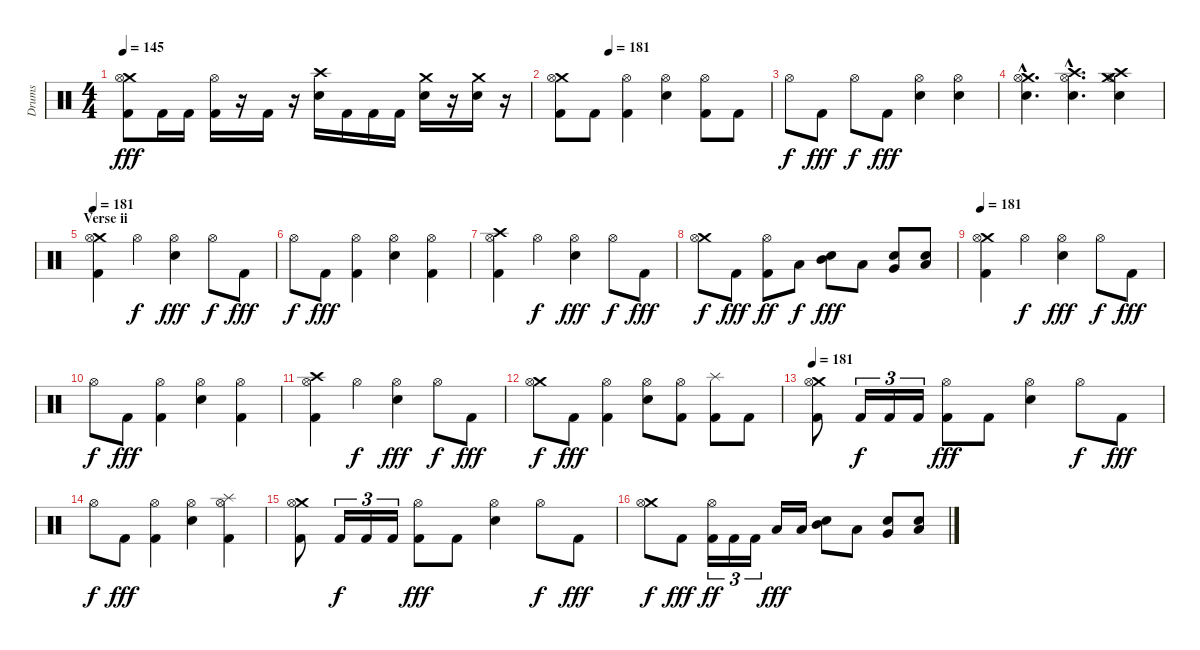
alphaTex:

\track ("Drums" "Drums") {instrument percussion}
\staff {score}
\articulation defaults
\ts (4 4)
\tempo 145
\clef neutral
\ks c
("Crash medium (hit)" "Hi-Hat (open)" "Kick (hit) 2").8{dy fff} "Kick (hit) 2".16 "Kick (hit) 2".16 ("Hi-Hat (open)" "Kick (hit) 2").16 r.16 "Kick (hit) 2".16 r.16 ("Crash high (hit)" "Snare (hit) 2").16 "Kick (hit) 2".16 "Kick (hit) 2".16 "Kick (hit) 2".16 ("Crash medium (hit)" "Snare (hit) 2").16 r.16 ("Crash medium (hit)" "Snare (hit) 2").16 r.16 |
\tempo (181 0.25)
("Crash medium (hit)" "Hi-Hat (open)" "Kick (hit) 2").8 "Kick (hit) 2".8 ("Hi-Hat (open)" "Kick (hit) 2").4 ("Hi-Hat (open)" "Snare (hit) 2").4 ("Hi-Hat (open)" "Kick (hit) 2").8 "Kick (hit) 2".8 |
"Hi-Hat (open)".8{dy f} "Kick (hit) 2".8{dy fff} "Hi-Hat (open)".8{dy f} "Kick (hit) 2".8{dy fff} ("Hi-Hat (open)" "Snare (hit) 2").4 ("Hi-Hat (open)" "Snare (hit) 2").4 |
("Crash medium (hit)"{hac} "Hi-Hat (open)"{hac} "Snare (hit) 2"{hac}).4{d} ("Crash high (hit)"{hac} "Hi-Hat (open)"{hac} "Snare (hit) 2"{hac}).4{d} ("Crash medium (hit)" "Crash high (hit)" "Hi-Hat (open)" "Snare (hit) 2").4 |
\section ("" "Verse ii")
\tempo 181
("Crash medium (hit)" "Hi-Hat (open)" "Kick (hit) 2").4 "Hi-Hat (open)".4{dy f} ("Hi-Hat (open)" "Snare (hit) 2").4{dy fff} "Hi-Hat (open)".8{dy f} "Kick (hit) 2".8{dy fff} |
"Hi-Hat (open)".8{dy f} "Kick (hit) 2".8{dy fff} ("Hi-Hat (open)" "Kick (hit) 2").4 ("Hi-Hat (open)" "Snare (hit) 2").4 ("Hi-Hat (open)" "Kick (hit) 2").4 |
("Crash high (hit)" "Hi-Hat (open)" "Kick (hit) 2").4 "Hi-Hat (open)".4{dy f} ("Hi-Hat (open)" "Snare (hit) 2").4{dy fff} "Hi-Hat (open)".8{dy f} "Kick (hit) 2".8{dy fff} |
("Crash medium (hit)" "Hi-Hat (open)").8{dy f} "Kick (hit) 2".8{dy fff} ("Hi-Hat (open)" "Kick (hit) 2").8{dy ff} "Low Tom (hit)".8{dy f} ("Mid Tom (hit)" "Snare (hit) 2").8{dy fff} "Low Tom (hit)".8 ("Very Low Tom (hit)" "Snare (hit) 2").8 ("Low Floor Tom (hit)" "Snare (hit) 2").8 |
\tempo 181
("Crash medium (hit)" "Hi-Hat (open)" "Kick (hit) 2").4 "Hi-Hat (open)".4{dy f} ("Hi-Hat (open)" "Snare (hit) 2").4{dy fff} "Hi-Hat (open)".8{dy f} "Kick (hit) 2".8{dy fff} |
"Hi-Hat (open)".8{dy f} "Kick (hit) 2".8{dy fff} ("Hi-Hat (open)" "Kick (hit) 2").4 ("Hi-Hat (open)" "Snare (hit) 2").4 ("Hi-Hat (open)" "Kick (hit) 2").4 |
("Crash high (hit)" "Hi-Hat (open)" "Kick (hit) 2").4 "Hi-Hat (open)".4{dy f} ("Hi-Hat (open)" "Snare (hit) 2").4{dy fff} "Hi-Hat (open)".8{dy f} "Kick (hit) 2".8{dy fff} |
("Crash medium (hit)" "Hi-Hat (open)").8{dy f} "Kick (hit) 2".8{dy fff} ("Hi-Hat (open)" "Kick (hit) 2").4 ("Hi-Hat (open)" "Snare (hit) 2").8 ("Hi-Hat (open)" "Kick (hit) 2").8 ("Splash (hit)" "Kick (hit) 2").8 "Kick (hit) 2".8 |
\tempo 181
("Crash medium (hit)" "Hi-Hat (open)" "Kick (hit) 2").8 "Kick (hit) 2".16{tu (3 2) dy f} "Kick (hit) 2".16{tu (3 2)} "Kick (hit) 2".16{tu (3 2)} ("Hi-Hat (open)" "Kick (hit) 2").8{dy fff} "Kick (hit) 2".8 ("Hi-Hat (open)" "Snare (hit) 2").4 "Hi-Hat (open)".8{dy f} "Kick (hit) 2".8{dy fff} |
"Hi-Hat (open)".8{dy f} "Kick (hit) 2".8{dy fff} ("Hi-Hat (open)" "Kick (hit) 2").4 ("Hi-Hat (open)" "Snare (hit) 2").4 ("Splash (hit)" "Hi-Hat (open)" "Kick (hit) 2").4 |
("Crash medium (hit)" "Hi-Hat (open)" "Kick (hit) 2").8 "Kick (hit) 2".16{tu (3 2) dy f} "Kick (hit) 2".16{tu (3 2)} "Kick (hit) 2".16{tu (3 2)} ("Hi-Hat (open)" "Kick (hit) 2").8{dy fff} "Kick (hit) 2".8 ("Hi-Hat (open)" "Snare (hit) 2").4 "Hi-Hat (open)".8{dy f} "Kick (hit) 2".8{dy fff} |
("Crash medium (hit)" "Hi-Hat (open)").8{dy f} "Kick (hit) 2".8{dy fff} ("Hi-Hat (open)" "Kick (hit) 2").16{tu (3 2) dy ff} "Kick (hit) 2".16{tu (3 2)} "Kick (hit) 2".16{tu (3 2)} "Low Tom (hit)".16{dy fff} "Low Tom (hit)".16 ("Mid Tom (hit)" "Snare (hit) 2").8 "Low Tom (hit)".8 ("Very Low Tom (hit)" "Snare (hit) 2").8 ("Low Floor Tom (hit)" "Snare (hit) 2").8
